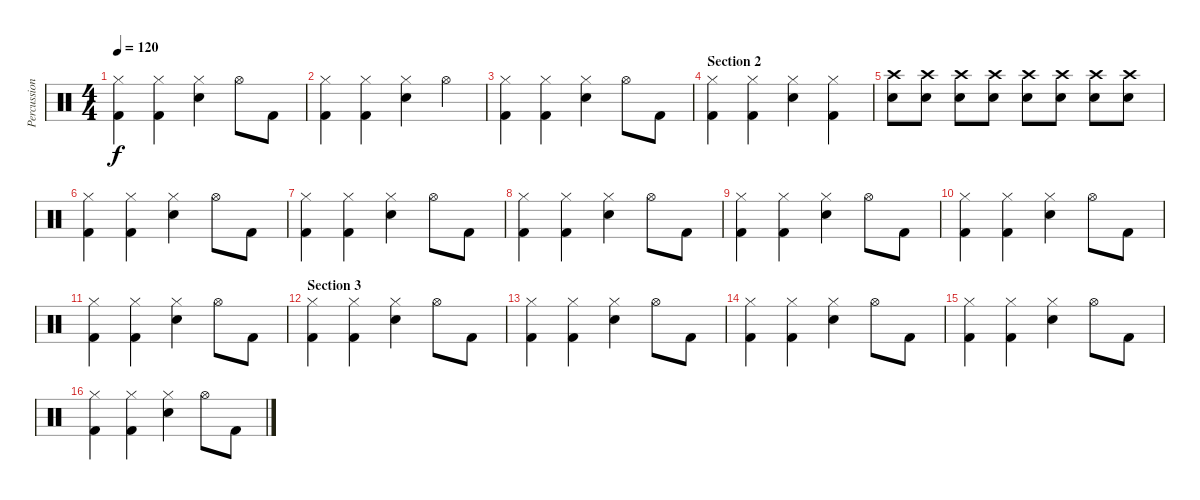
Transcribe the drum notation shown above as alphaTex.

\track ("Percussions" "Percussion") {instrument percussion}
\staff {score}
\articulation defaults
\ts (4 4)
\tempo 120
\clef neutral
\ks c
("Hi-Hat (closed)" "Kick (hit) 2").4{dy f} ("Hi-Hat (closed)" "Kick (hit) 2").4 ("Hi-Hat (closed)" "Snare (hit) 2").4 "Hi-Hat (open)".8 "Kick (hit) 2".8 |
("Hi-Hat (closed)" "Kick (hit) 2").4 ("Hi-Hat (closed)" "Kick (hit) 2").4 ("Hi-Hat (closed)" "Snare (hit) 2").4 "Hi-Hat (open)".4 |
("Hi-Hat (closed)" "Kick (hit) 2").4 ("Hi-Hat (closed)" "Kick (hit) 2").4 ("Hi-Hat (closed)" "Snare (hit) 2").4 "Hi-Hat (open)".8 "Kick (hit) 2".8 |
\section ("" "Section 2")
("Hi-Hat (closed)" "Kick (hit) 2").4 ("Hi-Hat (closed)" "Kick (hit) 2").4 ("Hi-Hat (closed)" "Snare (hit) 2").4 ("Hi-Hat (closed)" "Kick (hit) 2").4 |
("Crash high (hit)" "Snare (hit) 2").8 ("Crash high (hit)" "Snare (hit) 2").8 ("Crash high (hit)" "Snare (hit) 2").8 ("Crash high (hit)" "Snare (hit) 2").8 ("Crash high (hit)" "Snare (hit) 2").8 ("Crash high (hit)" "Snare (hit) 2").8 ("Crash high (hit)" "Snare (hit) 2").8 ("Crash high (hit)" "Snare (hit) 2").8 |
("Hi-Hat (closed)" "Kick (hit) 2").4 ("Hi-Hat (closed)" "Kick (hit) 2").4 ("Hi-Hat (closed)" "Snare (hit) 2").4 "Hi-Hat (open)".8 "Kick (hit) 2".8 |
("Hi-Hat (closed)" "Kick (hit) 2").4 ("Hi-Hat (closed)" "Kick (hit) 2").4 ("Hi-Hat (closed)" "Snare (hit) 2").4 "Hi-Hat (open)".8 "Kick (hit) 2".8 |
("Hi-Hat (closed)" "Kick (hit) 2").4 ("Hi-Hat (closed)" "Kick (hit) 2").4 ("Hi-Hat (closed)" "Snare (hit) 2").4 "Hi-Hat (open)".8 "Kick (hit) 2".8 |
("Hi-Hat (closed)" "Kick (hit) 2").4 ("Hi-Hat (closed)" "Kick (hit) 2").4 ("Hi-Hat (closed)" "Snare (hit) 2").4 "Hi-Hat (open)".8 "Kick (hit) 2".8 |
("Hi-Hat (closed)" "Kick (hit) 2").4 ("Hi-Hat (closed)" "Kick (hit) 2").4 ("Hi-Hat (closed)" "Snare (hit) 2").4 "Hi-Hat (open)".8 "Kick (hit) 2".8 |
("Hi-Hat (closed)" "Kick (hit) 2").4 ("Hi-Hat (closed)" "Kick (hit) 2").4 ("Hi-Hat (closed)" "Snare (hit) 2").4 "Hi-Hat (open)".8 "Kick (hit) 2".8 |
\section ("" "Section 3")
("Hi-Hat (closed)" "Kick (hit) 2").4 ("Hi-Hat (closed)" "Kick (hit) 2").4 ("Hi-Hat (closed)" "Snare (hit) 2").4 "Hi-Hat (open)".8 "Kick (hit) 2".8 |
("Hi-Hat (closed)" "Kick (hit) 2").4 ("Hi-Hat (closed)" "Kick (hit) 2").4 ("Hi-Hat (closed)" "Snare (hit) 2").4 "Hi-Hat (open)".8 "Kick (hit) 2".8 |
("Hi-Hat (closed)" "Kick (hit) 2").4 ("Hi-Hat (closed)" "Kick (hit) 2").4 ("Hi-Hat (closed)" "Snare (hit) 2").4 "Hi-Hat (open)".8 "Kick (hit) 2".8 |
("Hi-Hat (closed)" "Kick (hit) 2").4 ("Hi-Hat (closed)" "Kick (hit) 2").4 ("Hi-Hat (closed)" "Snare (hit) 2").4 "Hi-Hat (open)".8 "Kick (hit) 2".8 |
("Hi-Hat (closed)" "Kick (hit) 2").4 ("Hi-Hat (closed)" "Kick (hit) 2").4 ("Hi-Hat (closed)" "Snare (hit) 2").4 "Hi-Hat (open)".8 "Kick (hit) 2".8
